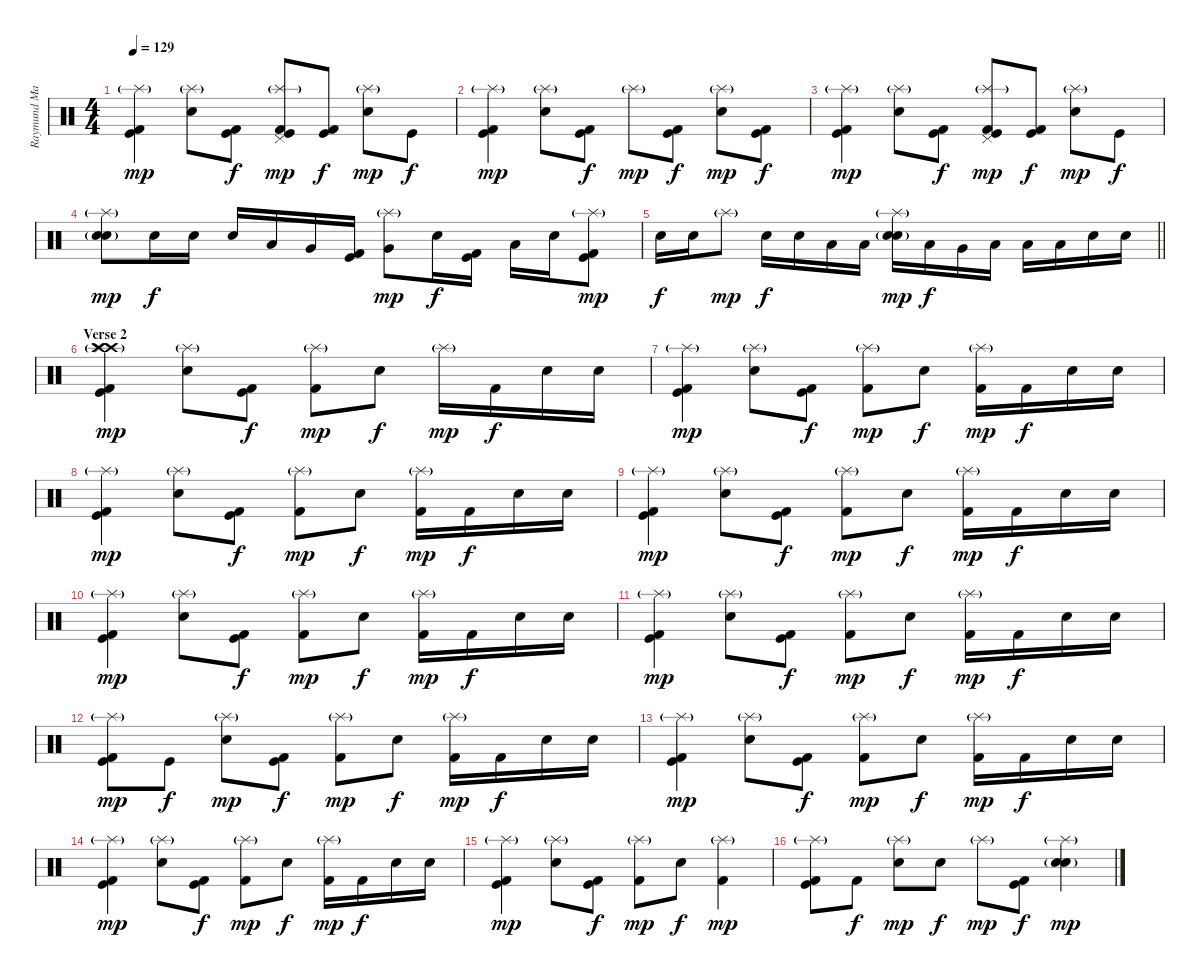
\track ("Raymund Marasigan(Drums)" "Raymund Ma") {instrument percussion}
\staff {score}
\articulation defaults
\ts (4 4)
\tempo 129
\clef neutral
\ks c
("Kick (hit) 2" "Kick (hit)" "Splash (hit)"{g}).4{dy mp} ("Electric Snare (hit)" "Splash (hit)"{g}).8 ("Kick (hit) 2" "Kick (hit)").8{dy f} ("Kick (hit) 2" "Kick (hit)" "Splash (hit)"{g} "Pedal Hi-Hat (hit)").8{dy mp} ("Kick (hit) 2" "Kick (hit)").8{dy f} ("Electric Snare (hit)" "Splash (hit)"{g}).8{dy mp} "Kick (hit)".8{dy f} |
("Kick (hit) 2" "Kick (hit)" "Splash (hit)"{g}).4{dy mp} ("Electric Snare (hit)" "Splash (hit)"{g}).8 ("Kick (hit) 2" "Kick (hit)").8{dy f} "Splash (hit)"{g}.8{dy mp} ("Kick (hit) 2" "Kick (hit)").8{dy f} ("Electric Snare (hit)" "Splash (hit)"{g}).8{dy mp} ("Kick (hit) 2" "Kick (hit)").8{dy f} |
("Kick (hit) 2" "Kick (hit)" "Splash (hit)"{g}).4{dy mp} ("Electric Snare (hit)" "Splash (hit)"{g}).8 ("Kick (hit) 2" "Kick (hit)").8{dy f} ("Kick (hit) 2" "Kick (hit)" "Splash (hit)"{g} "Pedal Hi-Hat (hit)").8{dy mp} ("Kick (hit) 2" "Kick (hit)").8{dy f} ("Electric Snare (hit)" "Splash (hit)"{g}).8{dy mp} "Kick (hit)".8{dy f} |
("Electric Snare (hit)" "Snare (hit) 2"{g} "Splash (hit)"{g}).8{dy mp} "Electric Snare (hit)".16{dy f} "Electric Snare (hit)".16 "Electric Snare (hit)".16 "Low Tom (hit)".16 "Very Low Tom (hit)".16 ("Kick (hit) 2" "Kick (hit)").16 ("Very Low Tom (hit)" "Splash (hit)"{g}).8{dy mp} "Electric Snare (hit)".16{dy f} ("Kick (hit) 2" "Kick (hit)").16 "Low Tom (hit)".16 "Electric Snare (hit)".16 ("Kick (hit) 2" "Kick (hit)" "Splash (hit)"{g}).8{dy mp} |
\barLineRight lightlight "Electric Snare (hit)".16{dy f} "Electric Snare (hit)".16 "Splash (hit)"{g}.8{dy mp} "Electric Snare (hit)".16{dy f} "Electric Snare (hit)".16 "Low Tom (hit)".16 "Low Tom (hit)".16
("Electric Snare (hit)" "Snare (hit) 2"{g} "Splash (hit)"{g}).16{dy mp} "Low Tom (hit)".16{dy f} "Very Low Tom (hit)".16 "Low Floor Tom (hit)".16 "Low Tom (hit)".16 "Low Tom (hit)".16 "Electric Snare (hit)".16 "Electric Snare (hit)".16 |
\section ("" "Verse 2")
("Crash high (hit)"{g} "Crash high (hit)"{g} "Kick (hit) 2" "Kick (hit)" "Splash (hit)"{g}).4{dy mp} ("Electric Snare (hit)" "Splash (hit)"{g}).8 ("Kick (hit) 2" "Kick (hit)").8{dy f} ("Kick (hit) 2" "Splash (hit)"{g}).8{dy mp} "Electric Snare (hit)".8{dy f} "Splash (hit)"{g}.16{dy mp} "Kick (hit) 2".16{dy f} "Electric Snare (hit)".16 "Electric Snare (hit)".16 |
("Kick (hit) 2" "Kick (hit)" "Splash (hit)"{g}).4{dy mp} ("Electric Snare (hit)" "Splash (hit)"{g}).8 ("Kick (hit) 2" "Kick (hit)").8{dy f} ("Kick (hit) 2" "Splash (hit)"{g}).8{dy mp} "Electric Snare (hit)".8{dy f} ("Splash (hit)"{g} "Kick (hit) 2").16{dy mp} "Kick (hit) 2".16{dy f} "Electric Snare (hit)".16 "Electric Snare (hit)".16 |
("Kick (hit) 2" "Kick (hit)" "Splash (hit)"{g}).4{dy mp} ("Electric Snare (hit)" "Splash (hit)"{g}).8 ("Kick (hit) 2" "Kick (hit)").8{dy f} ("Kick (hit) 2" "Splash (hit)"{g}).8{dy mp} "Electric Snare (hit)".8{dy f} ("Splash (hit)"{g} "Kick (hit) 2").16{dy mp} "Kick (hit) 2".16{dy f} "Electric Snare (hit)".16 "Electric Snare (hit)".16 |
("Kick (hit) 2" "Kick (hit)" "Splash (hit)"{g}).4{dy mp} ("Electric Snare (hit)" "Splash (hit)"{g}).8 ("Kick (hit) 2" "Kick (hit)").8{dy f} ("Kick (hit) 2" "Splash (hit)"{g}).8{dy mp} "Electric Snare (hit)".8{dy f} ("Splash (hit)"{g} "Kick (hit) 2").16{dy mp} "Kick (hit) 2".16{dy f} "Electric Snare (hit)".16 "Electric Snare (hit)".16 |
("Kick (hit) 2" "Kick (hit)" "Splash (hit)"{g}).4{dy mp} ("Electric Snare (hit)" "Splash (hit)"{g}).8 ("Kick (hit) 2" "Kick (hit)").8{dy f} ("Kick (hit) 2" "Splash (hit)"{g}).8{dy mp} "Electric Snare (hit)".8{dy f} ("Splash (hit)"{g} "Kick (hit) 2").16{dy mp} "Kick (hit) 2".16{dy f} "Electric Snare (hit)".16 "Electric Snare (hit)".16 |
("Kick (hit) 2" "Kick (hit)" "Splash (hit)"{g}).4{dy mp} ("Electric Snare (hit)" "Splash (hit)"{g}).8 ("Kick (hit) 2" "Kick (hit)").8{dy f} ("Kick (hit) 2" "Splash (hit)"{g}).8{dy mp} "Electric Snare (hit)".8{dy f} ("Splash (hit)"{g} "Kick (hit) 2").16{dy mp} "Kick (hit) 2".16{dy f} "Electric Snare (hit)".16 "Electric Snare (hit)".16 |
("Kick (hit) 2" "Kick (hit)" "Splash (hit)"{g}).8{dy mp} "Kick (hit)".8{dy f} ("Electric Snare (hit)" "Splash (hit)"{g}).8{dy mp} ("Kick (hit) 2" "Kick (hit)").8{dy f} ("Kick (hit) 2" "Splash (hit)"{g}).8{dy mp} "Electric Snare (hit)".8{dy f} ("Splash (hit)"{g} "Kick (hit) 2").16{dy mp} "Kick (hit) 2".16{dy f} "Electric Snare (hit)".16 "Electric Snare (hit)".16 |
("Kick (hit) 2" "Kick (hit)" "Splash (hit)"{g}).4{dy mp} ("Electric Snare (hit)" "Splash (hit)"{g}).8 ("Kick (hit) 2" "Kick (hit)").8{dy f} ("Kick (hit) 2" "Splash (hit)"{g}).8{dy mp} "Electric Snare (hit)".8{dy f} ("Splash (hit)"{g} "Kick (hit) 2").16{dy mp} "Kick (hit) 2".16{dy f} "Electric Snare (hit)".16 "Electric Snare (hit)".16 |
("Kick (hit) 2" "Kick (hit)" "Splash (hit)"{g}).4{dy mp} ("Electric Snare (hit)" "Splash (hit)"{g}).8 ("Kick (hit) 2" "Kick (hit)").8{dy f} ("Kick (hit) 2" "Splash (hit)"{g}).8{dy mp} "Electric Snare (hit)".8{dy f} ("Splash (hit)"{g} "Kick (hit) 2").16{dy mp} "Kick (hit) 2".16{dy f} "Electric Snare (hit)".16 "Electric Snare (hit)".16 |
("Kick (hit) 2" "Kick (hit)" "Splash (hit)"{g}).4{dy mp} ("Electric Snare (hit)" "Splash (hit)"{g}).8 ("Kick (hit) 2" "Kick (hit)").8{dy f} ("Kick (hit) 2" "Splash (hit)"{g}).8{dy mp} "Electric Snare (hit)".8{dy f} ("Splash (hit)"{g} "Kick (hit) 2").4{dy mp} |
("Kick (hit) 2" "Kick (hit)" "Splash (hit)"{g}).8 "Kick (hit) 2".8{dy f} ("Electric Snare (hit)" "Splash (hit)"{g}).8{dy mp} "Electric Snare (hit)".8{dy f} "Splash (hit)"{g}.8{dy mp} ("Kick (hit) 2" "Kick (hit)").8{dy f} ("Electric Snare (hit)" "Snare (hit) 2"{g} "Splash (hit)"{g}).4{dy mp}
